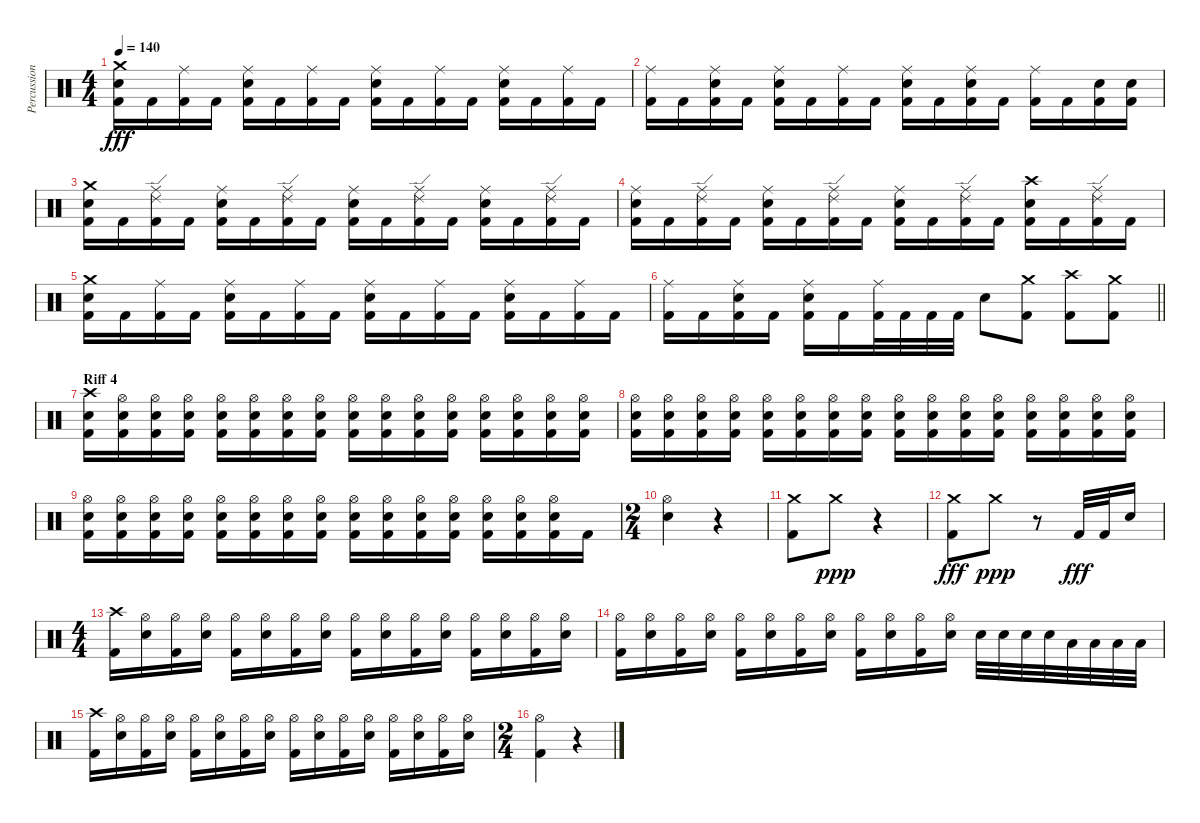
\track ("Percussion" "Percussion") {instrument percussion}
\staff {score}
\articulation defaults
\ts (4 4)
\tempo 140
\clef neutral
\ks c
("Crash medium (hit)" "Electric Snare (hit)" "Kick (hit) 2").16{dy fff} "Kick (hit) 2".16 ("Ride (middle)" "Kick (hit) 2").16 "Kick (hit) 2".16 ("Ride (middle)" "Electric Snare (hit)" "Kick (hit) 2").16 "Kick (hit) 2".16 ("Ride (middle)" "Kick (hit) 2").16 "Kick (hit) 2".16 ("Ride (middle)" "Electric Snare (hit)" "Kick (hit) 2").16 "Kick (hit) 2".16 ("Ride (middle)" "Kick (hit) 2").16 "Kick (hit) 2".16 ("Ride (middle)" "Electric Snare (hit)" "Kick (hit) 2").16 "Kick (hit) 2".16 ("Ride (middle)" "Kick (hit) 2").16 "Kick (hit) 2".16 |
("Ride (middle)" "Kick (hit) 2").16 "Kick (hit) 2".16 ("Ride (middle)" "Electric Snare (hit)" "Kick (hit) 2").16 "Kick (hit) 2".16 ("Ride (middle)" "Electric Snare (hit)" "Kick (hit) 2").16 "Kick (hit) 2".16 ("Ride (middle)" "Kick (hit) 2").16 "Kick (hit) 2".16 ("Ride (middle)" "Electric Snare (hit)" "Kick (hit) 2").16 "Kick (hit) 2".16 ("Ride (middle)" "Electric Snare (hit)" "Kick (hit) 2").16 "Kick (hit) 2".16 ("Ride (middle)" "Kick (hit) 2").16 "Kick (hit) 2".16 ("Electric Snare (hit)" "Kick (hit) 2").16 ("Electric Snare (hit)" "Kick (hit) 2").16 |
("Crash medium (hit)" "Electric Snare (hit)" "Kick (hit) 2").16 "Kick (hit) 2".16 ("Ride (edge) 2" "Ride (middle)" "Kick (hit) 2").16 "Kick (hit) 2".16 ("Ride (middle)" "Electric Snare (hit)" "Kick (hit) 2").16 "Kick (hit) 2".16 ("Ride (edge) 2" "Ride (middle)" "Kick (hit) 2").16 "Kick (hit) 2".16 ("Ride (middle)" "Electric Snare (hit)" "Kick (hit) 2").16 "Kick (hit) 2".16 ("Ride (edge) 2" "Ride (middle)" "Kick (hit) 2").16 "Kick (hit) 2".16 ("Ride (middle)" "Electric Snare (hit)" "Kick (hit) 2").16 "Kick (hit) 2".16 ("Ride (edge) 2" "Ride (middle)" "Kick (hit) 2").16 "Kick (hit) 2".16 |
("Ride (middle)" "Electric Snare (hit)" "Kick (hit) 2").16 "Kick (hit) 2".16 ("Ride (edge) 2" "Ride (middle)" "Kick (hit) 2").16 "Kick (hit) 2".16 ("Ride (middle)" "Electric Snare (hit)" "Kick (hit) 2").16 "Kick (hit) 2".16 ("Ride (edge) 2" "Ride (middle)" "Kick (hit) 2").16 "Kick (hit) 2".16 ("Ride (middle)" "Electric Snare (hit)" "Kick (hit) 2").16 "Kick (hit) 2".16 ("Ride (edge) 2" "Ride (middle)" "Kick (hit) 2").16 "Kick (hit) 2".16 ("Crash high (hit)" "Electric Snare (hit)" "Kick (hit) 2").16 "Kick (hit) 2".16 ("Ride (edge) 2" "Ride (middle)" "Kick (hit) 2").16 "Kick (hit) 2".16 |
("Crash medium (hit)" "Electric Snare (hit)" "Kick (hit) 2").16 "Kick (hit) 2".16 ("Ride (middle)" "Kick (hit) 2").16 "Kick (hit) 2".16 ("Ride (middle)" "Electric Snare (hit)" "Kick (hit) 2").16 "Kick (hit) 2".16 ("Ride (middle)" "Kick (hit) 2").16 "Kick (hit) 2".16 ("Ride (middle)" "Electric Snare (hit)" "Kick (hit) 2").16 "Kick (hit) 2".16 ("Ride (middle)" "Kick (hit) 2").16 "Kick (hit) 2".16 ("Ride (middle)" "Electric Snare (hit)" "Kick (hit) 2").16 "Kick (hit) 2".16 ("Ride (middle)" "Kick (hit) 2").16 "Kick (hit) 2".16 |
\barLineRight lightlight
("Ride (middle)" "Kick (hit) 2").16 "Kick (hit) 2".16 ("Ride (middle)" "Electric Snare (hit)" "Kick (hit) 2").16 "Kick (hit) 2".16 ("Ride (middle)" "Electric Snare (hit)" "Kick (hit) 2").16 "Kick (hit) 2".16 ("Ride (middle)" "Kick (hit) 2").32 "Kick (hit) 2".32 "Kick (hit) 2".32 "Kick (hit) 2".32 "Electric Snare (hit)".8 ("Crash medium (hit)" "Kick (hit) 2").8 ("Crash high (hit)" "Kick (hit) 2").8 ("Crash medium (hit)" "Kick (hit) 2").8 |
\section ("" "Riff 4")
("Crash high (hit)" "Electric Snare (hit)" "Kick (hit) 2").16 ("Hi-Hat (open)" "Electric Snare (hit)" "Kick (hit) 2").16 ("Hi-Hat (open)" "Electric Snare (hit)" "Kick (hit) 2").16 ("Hi-Hat (open)" "Electric Snare (hit)" "Kick (hit) 2").16 ("Hi-Hat (open)" "Electric Snare (hit)" "Kick (hit) 2").16 ("Hi-Hat (open)" "Electric Snare (hit)" "Kick (hit) 2").16 ("Hi-Hat (open)" "Electric Snare (hit)" "Kick (hit) 2").16 ("Hi-Hat (open)" "Electric Snare (hit)" "Kick (hit) 2").16 ("Hi-Hat (open)" "Electric Snare (hit)" "Kick (hit) 2").16 ("Hi-Hat (open)" "Electric Snare (hit)" "Kick (hit) 2").16 ("Hi-Hat (open)" "Electric Snare (hit)" "Kick (hit) 2").16 ("Hi-Hat (open)" "Electric Snare (hit)" "Kick (hit) 2").16 ("Hi-Hat (open)" "Electric Snare (hit)" "Kick (hit) 2").16 ("Hi-Hat (open)" "Electric Snare (hit)" "Kick (hit) 2").16 ("Hi-Hat (open)" "Electric Snare (hit)" "Kick (hit) 2").16 ("Hi-Hat (open)" "Electric Snare (hit)" "Kick (hit) 2").16 |
("Hi-Hat (open)" "Electric Snare (hit)" "Kick (hit) 2").16 ("Hi-Hat (open)" "Electric Snare (hit)" "Kick (hit) 2").16 ("Hi-Hat (open)" "Electric Snare (hit)" "Kick (hit) 2").16 ("Hi-Hat (open)" "Electric Snare (hit)" "Kick (hit) 2").16 ("Hi-Hat (open)" "Electric Snare (hit)" "Kick (hit) 2").16 ("Hi-Hat (open)" "Electric Snare (hit)" "Kick (hit) 2").16 ("Hi-Hat (open)" "Electric Snare (hit)" "Kick (hit) 2").16 ("Hi-Hat (open)" "Electric Snare (hit)" "Kick (hit) 2").16 ("Hi-Hat (open)" "Electric Snare (hit)" "Kick (hit) 2").16 ("Hi-Hat (open)" "Electric Snare (hit)" "Kick (hit) 2").16 ("Hi-Hat (open)" "Electric Snare (hit)" "Kick (hit) 2").16 ("Hi-Hat (open)" "Electric Snare (hit)" "Kick (hit) 2").16 ("Hi-Hat (open)" "Electric Snare (hit)" "Kick (hit) 2").16 ("Hi-Hat (open)" "Electric Snare (hit)" "Kick (hit) 2").16 ("Hi-Hat (open)" "Electric Snare (hit)" "Kick (hit) 2").16 ("Hi-Hat (open)" "Electric Snare (hit)" "Kick (hit) 2").16 |
("Hi-Hat (open)" "Electric Snare (hit)" "Kick (hit) 2").16 ("Hi-Hat (open)" "Electric Snare (hit)" "Kick (hit) 2").16 ("Hi-Hat (open)" "Electric Snare (hit)" "Kick (hit) 2").16 ("Hi-Hat (open)" "Electric Snare (hit)" "Kick (hit) 2").16 ("Hi-Hat (open)" "Electric Snare (hit)" "Kick (hit) 2").16 ("Hi-Hat (open)" "Electric Snare (hit)" "Kick (hit) 2").16 ("Hi-Hat (open)" "Electric Snare (hit)" "Kick (hit) 2").16 ("Hi-Hat (open)" "Electric Snare (hit)" "Kick (hit) 2").16 ("Hi-Hat (open)" "Electric Snare (hit)" "Kick (hit) 2").16 ("Hi-Hat (open)" "Electric Snare (hit)" "Kick (hit) 2").16 ("Hi-Hat (open)" "Electric Snare (hit)" "Kick (hit) 2").16 ("Hi-Hat (open)" "Electric Snare (hit)" "Kick (hit) 2").16 ("Hi-Hat (open)" "Electric Snare (hit)" "Kick (hit) 2").16 ("Hi-Hat (open)" "Electric Snare (hit)" "Kick (hit) 2").16 ("Hi-Hat (open)" "Electric Snare (hit)" "Kick (hit) 2").16 "Kick (hit) 2".16 |
\ts (2 4)
("Hi-Hat (open)" "Electric Snare (hit)").4 r.4 |
("Crash medium (hit)" "Kick (hit) 2").8 "Crash medium (hit)".8{dy ppp} r.4 |
("Crash medium (hit)" "Kick (hit) 2").8{dy fff} "Crash medium (hit)".8{dy ppp} r.8 "Kick (hit) 2".32{dy fff} "Kick (hit) 2".32 "Electric Snare (hit)".16 |
\ts (4 4)
("Crash high (hit)" "Kick (hit) 2").16 ("Hi-Hat (open)" "Electric Snare (hit)").16 ("Hi-Hat (open)" "Kick (hit) 2").16 ("Hi-Hat (open)" "Electric Snare (hit)").16 ("Hi-Hat (open)" "Kick (hit) 2").16 ("Hi-Hat (open)" "Electric Snare (hit)").16 ("Hi-Hat (open)" "Kick (hit) 2").16 ("Hi-Hat (open)" "Electric Snare (hit)").16 ("Hi-Hat (open)" "Kick (hit) 2").16 ("Hi-Hat (open)" "Electric Snare (hit)").16 ("Hi-Hat (open)" "Kick (hit) 2").16 ("Hi-Hat (open)" "Electric Snare (hit)").16 ("Hi-Hat (open)" "Kick (hit) 2").16 ("Hi-Hat (open)" "Electric Snare (hit)").16 ("Hi-Hat (open)" "Kick (hit) 2").16 ("Hi-Hat (open)" "Electric Snare (hit)").16 |
("Hi-Hat (open)" "Kick (hit) 2").16 ("Hi-Hat (open)" "Electric Snare (hit)").16 ("Hi-Hat (open)" "Kick (hit) 2").16 ("Hi-Hat (open)" "Electric Snare (hit)").16 ("Hi-Hat (open)" "Kick (hit) 2").16 ("Hi-Hat (open)" "Electric Snare (hit)").16 ("Hi-Hat (open)" "Kick (hit) 2").16 ("Hi-Hat (open)" "Electric Snare (hit)").16 ("Hi-Hat (open)" "Kick (hit) 2").16 ("Hi-Hat (open)" "Electric Snare (hit)").16 ("Hi-Hat (open)" "Kick (hit) 2").16 ("Hi-Hat (open)" "Electric Snare (hit)").16 "Electric Snare (hit)".32 "Electric Snare (hit)".32 "Electric Snare (hit)".32 "Electric Snare (hit)".32 "Low Tom (hit)".32 "Low Tom (hit)".32 "Low Tom (hit)".32 "Low Tom (hit)".32 |
("Crash high (hit)" "Kick (hit) 2").16 ("Hi-Hat (open)" "Electric Snare (hit)").16 ("Hi-Hat (open)" "Kick (hit) 2").16 ("Hi-Hat (open)" "Electric Snare (hit)").16 ("Hi-Hat (open)" "Kick (hit) 2").16 ("Hi-Hat (open)" "Electric Snare (hit)").16 ("Hi-Hat (open)" "Kick (hit) 2").16 ("Hi-Hat (open)" "Electric Snare (hit)").16 ("Hi-Hat (open)" "Kick (hit) 2").16 ("Hi-Hat (open)" "Electric Snare (hit)").16 ("Hi-Hat (open)" "Kick (hit) 2").16 ("Hi-Hat (open)" "Electric Snare (hit)").16 ("Hi-Hat (open)" "Kick (hit) 2").16 ("Hi-Hat (open)" "Electric Snare (hit)").16 ("Hi-Hat (open)" "Kick (hit) 2").16 ("Hi-Hat (open)" "Electric Snare (hit)").16 |
\ts (2 4)
("Hi-Hat (open)" "Kick (hit) 2").4 r.4
